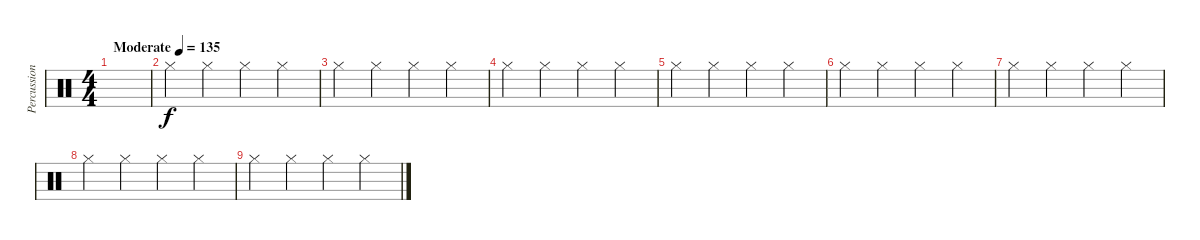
\track ("Percussion" "Percussion") {instrument percussion}
\staff {score}
\articulation defaults
\ts (4 4)
\tempo (135 "Moderate")
\clef neutral
\ks c
|
"Hi-Hat (closed)".4 "Hi-Hat (closed)".4 "Hi-Hat (closed)".4 "Hi-Hat (closed)".4 |
"Hi-Hat (closed)".4 "Hi-Hat (closed)".4 "Hi-Hat (closed)".4 "Hi-Hat (closed)".4 |
"Hi-Hat (closed)".4 "Hi-Hat (closed)".4 "Hi-Hat (closed)".4 "Hi-Hat (closed)".4 |
"Hi-Hat (closed)".4 "Hi-Hat (closed)".4 "Hi-Hat (closed)".4 "Hi-Hat (closed)".4 |
"Hi-Hat (closed)".4 "Hi-Hat (closed)".4 "Hi-Hat (closed)".4 "Hi-Hat (closed)".4 |
"Hi-Hat (closed)".4 "Hi-Hat (closed)".4 "Hi-Hat (closed)".4 "Hi-Hat (closed)".4 |
"Hi-Hat (closed)".4 "Hi-Hat (closed)".4 "Hi-Hat (closed)".4 "Hi-Hat (closed)".4 |
"Hi-Hat (closed)".4 "Hi-Hat (closed)".4 "Hi-Hat (closed)".4 "Hi-Hat (closed)".4
